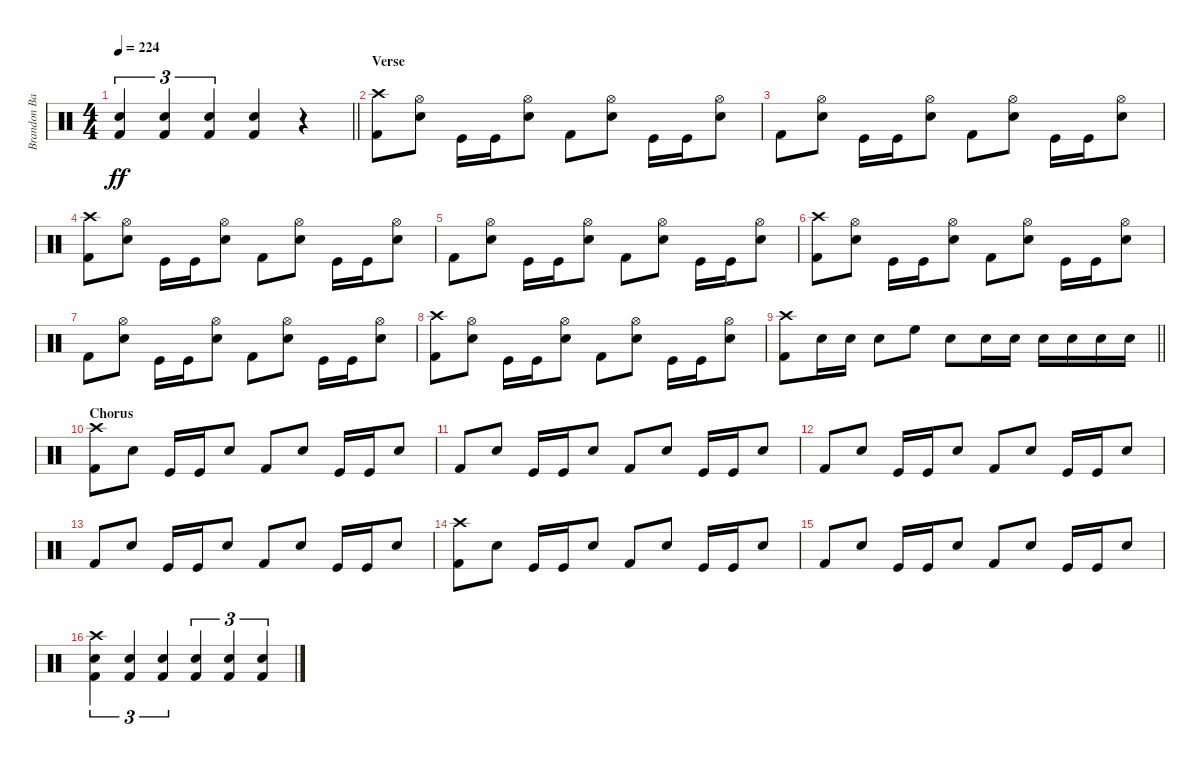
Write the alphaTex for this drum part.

\track ("Brandon Barnes" "Brandon Ba") {instrument percussion}
\staff {score}
\articulation defaults
\ts (4 4)
\tempo 224
\clef neutral
\barLineRight lightlight
\ks c
("Kick (hit) 2" "Snare (hit) 2").4{tu (3 2) dy ff} ("Kick (hit) 2" "Snare (hit) 2").4{tu (3 2)} ("Kick (hit) 2" "Snare (hit) 2").4{tu (3 2)} ("Kick (hit) 2" "Snare (hit) 2").4 r.4 |
\section ("" "Verse")
("Kick (hit) 2" "Crash high (hit)").8 ("Snare (hit) 2" "Hi-Hat (open)").8 "Kick (hit)".16 "Kick (hit)".16 ("Snare (hit) 2" "Hi-Hat (open)").8 "Kick (hit) 2".8 ("Snare (hit) 2" "Hi-Hat (open)").8 "Kick (hit)".16 "Kick (hit)".16 ("Snare (hit) 2" "Hi-Hat (open)").8 |
"Kick (hit) 2".8 ("Snare (hit) 2" "Hi-Hat (open)").8 "Kick (hit)".16 "Kick (hit)".16 ("Snare (hit) 2" "Hi-Hat (open)").8 "Kick (hit) 2".8 ("Snare (hit) 2" "Hi-Hat (open)").8 "Kick (hit)".16 "Kick (hit)".16 ("Snare (hit) 2" "Hi-Hat (open)").8 |
("Kick (hit) 2" "Crash high (hit)").8 ("Snare (hit) 2" "Hi-Hat (open)").8 "Kick (hit)".16 "Kick (hit)".16 ("Snare (hit) 2" "Hi-Hat (open)").8 "Kick (hit) 2".8 ("Snare (hit) 2" "Hi-Hat (open)").8 "Kick (hit)".16 "Kick (hit)".16 ("Snare (hit) 2" "Hi-Hat (open)").8 |
"Kick (hit) 2".8 ("Snare (hit) 2" "Hi-Hat (open)").8 "Kick (hit)".16 "Kick (hit)".16 ("Snare (hit) 2" "Hi-Hat (open)").8 "Kick (hit) 2".8 ("Snare (hit) 2" "Hi-Hat (open)").8 "Kick (hit)".16 "Kick (hit)".16 ("Snare (hit) 2" "Hi-Hat (open)").8 |
("Kick (hit) 2" "Crash high (hit)").8 ("Snare (hit) 2" "Hi-Hat (open)").8 "Kick (hit)".16 "Kick (hit)".16 ("Snare (hit) 2" "Hi-Hat (open)").8 "Kick (hit) 2".8 ("Snare (hit) 2" "Hi-Hat (open)").8 "Kick (hit)".16 "Kick (hit)".16 ("Snare (hit) 2" "Hi-Hat (open)").8 |
"Kick (hit) 2".8 ("Snare (hit) 2" "Hi-Hat (open)").8 "Kick (hit)".16 "Kick (hit)".16 ("Snare (hit) 2" "Hi-Hat (open)").8 "Kick (hit) 2".8 ("Snare (hit) 2" "Hi-Hat (open)").8 "Kick (hit)".16 "Kick (hit)".16 ("Snare (hit) 2" "Hi-Hat (open)").8 |
("Kick (hit) 2" "Crash high (hit)").8 ("Snare (hit) 2" "Hi-Hat (open)").8 "Kick (hit)".16 "Kick (hit)".16 ("Snare (hit) 2" "Hi-Hat (open)").8 "Kick (hit) 2".8 ("Snare (hit) 2" "Hi-Hat (open)").8 "Kick (hit)".16 "Kick (hit)".16 ("Snare (hit) 2" "Hi-Hat (open)").8 |
\barLineRight lightlight
("Kick (hit) 2" "Crash high (hit)").8 "Snare (hit) 2".16 "Snare (hit) 2".16 "Snare (hit) 2".8 "High Floor Tom (hit)".8 "Snare (hit) 2".8 "Snare (hit) 2".16 "Snare (hit) 2".16 "Snare (hit) 2".16 "Snare (hit) 2".16 "Snare (hit) 2".16 "Snare (hit) 2".16 |
\section ("" "Chorus")
("Kick (hit) 2" "Crash high (hit)").8 "Snare (hit) 2".8 "Kick (hit)".16 "Kick (hit)".16 "Snare (hit) 2".8 "Kick (hit) 2".8 "Snare (hit) 2".8 "Kick (hit)".16 "Kick (hit)".16 "Snare (hit) 2".8 |
"Kick (hit) 2".8 "Snare (hit) 2".8 "Kick (hit)".16 "Kick (hit)".16 "Snare (hit) 2".8 "Kick (hit) 2".8 "Snare (hit) 2".8 "Kick (hit)".16 "Kick (hit)".16 "Snare (hit) 2".8 |
"Kick (hit) 2".8 "Snare (hit) 2".8 "Kick (hit)".16 "Kick (hit)".16 "Snare (hit) 2".8 "Kick (hit) 2".8 "Snare (hit) 2".8 "Kick (hit)".16 "Kick (hit)".16 "Snare (hit) 2".8 |
"Kick (hit) 2".8 "Snare (hit) 2".8 "Kick (hit)".16 "Kick (hit)".16 "Snare (hit) 2".8 "Kick (hit) 2".8 "Snare (hit) 2".8 "Kick (hit)".16 "Kick (hit)".16 "Snare (hit) 2".8 |
("Kick (hit) 2" "Crash high (hit)").8 "Snare (hit) 2".8 "Kick (hit)".16 "Kick (hit)".16 "Snare (hit) 2".8 "Kick (hit) 2".8 "Snare (hit) 2".8 "Kick (hit)".16 "Kick (hit)".16 "Snare (hit) 2".8 |
"Kick (hit) 2".8 "Snare (hit) 2".8 "Kick (hit)".16 "Kick (hit)".16 "Snare (hit) 2".8 "Kick (hit) 2".8 "Snare (hit) 2".8 "Kick (hit)".16 "Kick (hit)".16 "Snare (hit) 2".8 |
("Kick (hit) 2" "Crash high (hit)" "Snare (hit) 2").4{tu (3 2)} ("Kick (hit) 2" "Snare (hit) 2").4{tu (3 2)} ("Kick (hit) 2" "Snare (hit) 2").4{tu (3 2)} ("Kick (hit) 2" "Snare (hit) 2").4{tu (3 2)} ("Kick (hit) 2" "Snare (hit) 2").4{tu (3 2)} ("Kick (hit) 2" "Snare (hit) 2").4{tu (3 2)}
